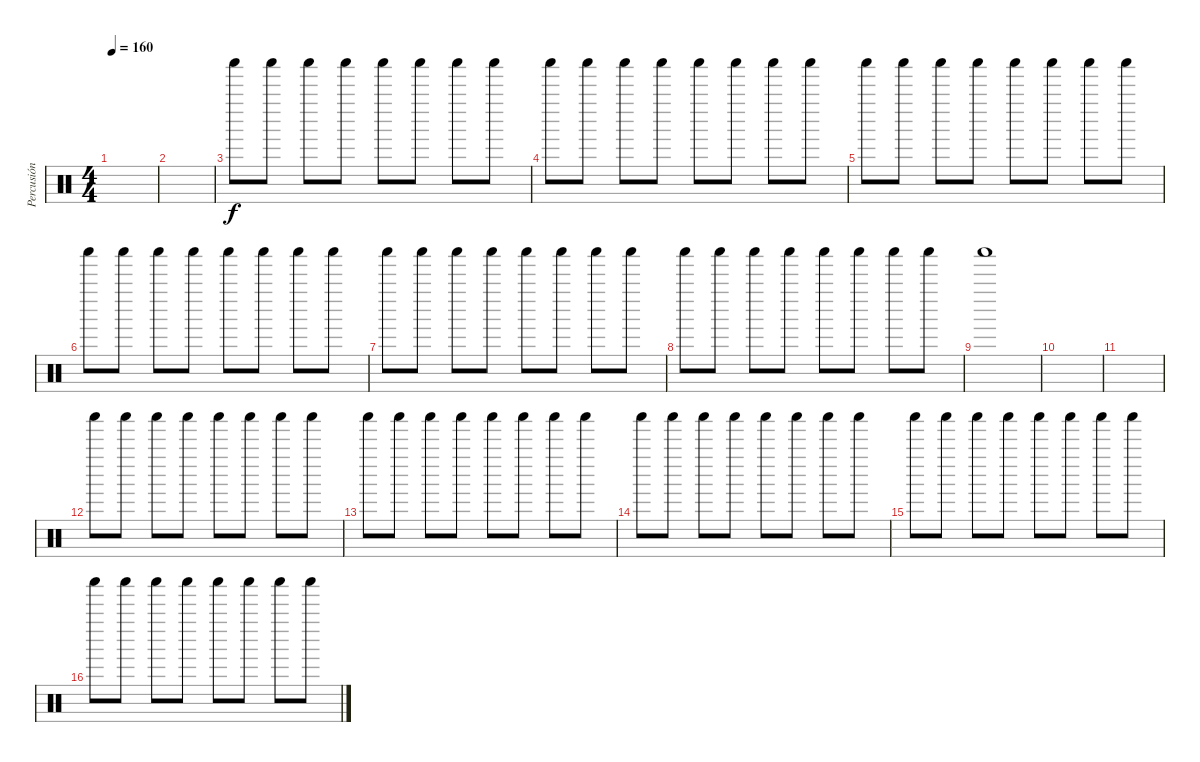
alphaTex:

\track ("Percusión" "Percusión") {instrument percussion}
\staff {score}
\articulation defaults
\ts (4 4)
\tempo 160
\clef neutral
\ks c
|
|
"Shaker (hit)".8 "Shaker (hit)".8 "Shaker (hit)".8 "Shaker (hit)".8 "Shaker (hit)".8 "Shaker (hit)".8 "Shaker (hit)".8 "Shaker (hit)".8 |
"Shaker (hit)".8 "Shaker (hit)".8 "Shaker (hit)".8 "Shaker (hit)".8 "Shaker (hit)".8 "Shaker (hit)".8 "Shaker (hit)".8 "Shaker (hit)".8 |
"Shaker (hit)".8 "Shaker (hit)".8 "Shaker (hit)".8 "Shaker (hit)".8 "Shaker (hit)".8 "Shaker (hit)".8 "Shaker (hit)".8 "Shaker (hit)".8 |
"Shaker (hit)".8 "Shaker (hit)".8 "Shaker (hit)".8 "Shaker (hit)".8 "Shaker (hit)".8 "Shaker (hit)".8 "Shaker (hit)".8 "Shaker (hit)".8 |
"Shaker (hit)".8 "Shaker (hit)".8 "Shaker (hit)".8 "Shaker (hit)".8 "Shaker (hit)".8 "Shaker (hit)".8 "Shaker (hit)".8 "Shaker (hit)".8 |
"Shaker (hit)".8 "Shaker (hit)".8 "Shaker (hit)".8 "Shaker (hit)".8 "Shaker (hit)".8 "Shaker (hit)".8 "Shaker (hit)".8 "Shaker (hit)".8 |
"Shaker (hit)".1 |
|
|
"Shaker (hit)".8 "Shaker (hit)".8 "Shaker (hit)".8 "Shaker (hit)".8 "Shaker (hit)".8 "Shaker (hit)".8 "Shaker (hit)".8 "Shaker (hit)".8 |
"Shaker (hit)".8 "Shaker (hit)".8 "Shaker (hit)".8 "Shaker (hit)".8 "Shaker (hit)".8 "Shaker (hit)".8 "Shaker (hit)".8 "Shaker (hit)".8 |
"Shaker (hit)".8 "Shaker (hit)".8 "Shaker (hit)".8 "Shaker (hit)".8 "Shaker (hit)".8 "Shaker (hit)".8 "Shaker (hit)".8 "Shaker (hit)".8 |
"Shaker (hit)".8 "Shaker (hit)".8 "Shaker (hit)".8 "Shaker (hit)".8 "Shaker (hit)".8 "Shaker (hit)".8 "Shaker (hit)".8 "Shaker (hit)".8 |
"Shaker (hit)".8 "Shaker (hit)".8 "Shaker (hit)".8 "Shaker (hit)".8 "Shaker (hit)".8 "Shaker (hit)".8 "Shaker (hit)".8 "Shaker (hit)".8
